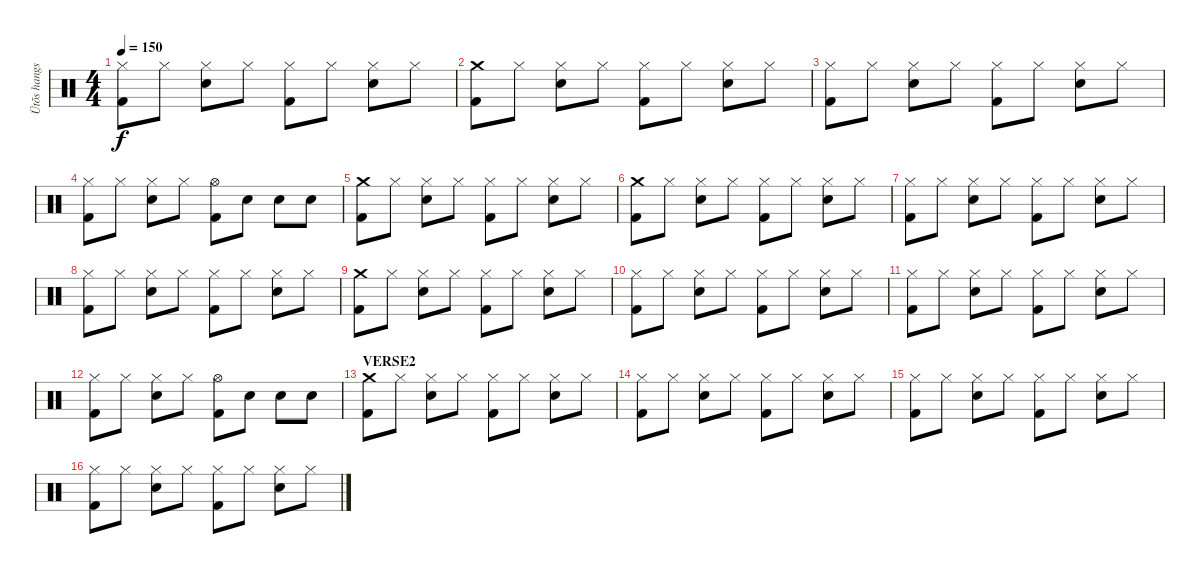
\track ("Ütõs hangszer" "Ütõs hangs") {instrument percussion}
\staff {score}
\articulation defaults
\ts (4 4)
\tempo 150
\clef neutral
\ks c
("Hi-Hat (closed)" "Kick (hit) 2").8{dy f} "Hi-Hat (closed)".8 ("Hi-Hat (closed)" "Electric Snare (hit)").8 "Hi-Hat (closed)".8 ("Hi-Hat (closed)" "Kick (hit) 2").8 "Hi-Hat (closed)".8 ("Hi-Hat (closed)" "Electric Snare (hit)").8 "Hi-Hat (closed)".8 |
("Crash medium (hit)" "Kick (hit) 2").8 "Hi-Hat (closed)".8 ("Hi-Hat (closed)" "Electric Snare (hit)").8 "Hi-Hat (closed)".8 ("Hi-Hat (closed)" "Kick (hit) 2").8 "Hi-Hat (closed)".8 ("Hi-Hat (closed)" "Electric Snare (hit)").8 "Hi-Hat (closed)".8 |
("Hi-Hat (closed)" "Kick (hit) 2").8 "Hi-Hat (closed)".8 ("Hi-Hat (closed)" "Electric Snare (hit)").8 "Hi-Hat (closed)".8 ("Hi-Hat (closed)" "Kick (hit) 2").8 "Hi-Hat (closed)".8 ("Hi-Hat (closed)" "Electric Snare (hit)").8 "Hi-Hat (closed)".8 |
("Hi-Hat (closed)" "Kick (hit) 2").8 "Hi-Hat (closed)".8 ("Hi-Hat (closed)" "Electric Snare (hit)").8 "Hi-Hat (closed)".8 ("Hi-Hat (open)" "Kick (hit) 2").8 "Electric Snare (hit)".8 "Electric Snare (hit)".8 "Electric Snare (hit)".8 |
("Crash medium (hit)" "Kick (hit) 2").8 "Hi-Hat (closed)".8 ("Hi-Hat (closed)" "Electric Snare (hit)").8 "Hi-Hat (closed)".8 ("Hi-Hat (closed)" "Kick (hit) 2").8 "Hi-Hat (closed)".8 ("Hi-Hat (closed)" "Electric Snare (hit)").8 "Hi-Hat (closed)".8 |
("Crash medium (hit)" "Kick (hit) 2").8 "Hi-Hat (closed)".8 ("Hi-Hat (closed)" "Electric Snare (hit)").8 "Hi-Hat (closed)".8 ("Hi-Hat (closed)" "Kick (hit) 2").8 "Hi-Hat (closed)".8 ("Hi-Hat (closed)" "Electric Snare (hit)").8 "Hi-Hat (closed)".8 |
("Hi-Hat (closed)" "Kick (hit) 2").8 "Hi-Hat (closed)".8 ("Hi-Hat (closed)" "Electric Snare (hit)").8 "Hi-Hat (closed)".8 ("Hi-Hat (closed)" "Kick (hit) 2").8 "Hi-Hat (closed)".8 ("Hi-Hat (closed)" "Electric Snare (hit)").8 "Hi-Hat (closed)".8 |
("Hi-Hat (closed)" "Kick (hit) 2").8 "Hi-Hat (closed)".8 ("Hi-Hat (closed)" "Electric Snare (hit)").8 "Hi-Hat (closed)".8 ("Hi-Hat (closed)" "Kick (hit) 2").8 "Hi-Hat (closed)".8 ("Hi-Hat (closed)" "Electric Snare (hit)").8 "Hi-Hat (closed)".8 |
("Crash medium (hit)" "Kick (hit) 2").8 "Hi-Hat (closed)".8 ("Hi-Hat (closed)" "Electric Snare (hit)").8 "Hi-Hat (closed)".8 ("Hi-Hat (closed)" "Kick (hit) 2").8 "Hi-Hat (closed)".8 ("Hi-Hat (closed)" "Electric Snare (hit)").8 "Hi-Hat (closed)".8 |
("Hi-Hat (closed)" "Kick (hit) 2").8 "Hi-Hat (closed)".8 ("Hi-Hat (closed)" "Electric Snare (hit)").8 "Hi-Hat (closed)".8 ("Hi-Hat (closed)" "Kick (hit) 2").8 "Hi-Hat (closed)".8 ("Hi-Hat (closed)" "Electric Snare (hit)").8 "Hi-Hat (closed)".8 |
("Hi-Hat (closed)" "Kick (hit) 2").8 "Hi-Hat (closed)".8 ("Hi-Hat (closed)" "Electric Snare (hit)").8 "Hi-Hat (closed)".8 ("Hi-Hat (closed)" "Kick (hit) 2").8 "Hi-Hat (closed)".8 ("Hi-Hat (closed)" "Electric Snare (hit)").8 "Hi-Hat (closed)".8 |
("Hi-Hat (closed)" "Kick (hit) 2").8 "Hi-Hat (closed)".8 ("Hi-Hat (closed)" "Electric Snare (hit)").8 "Hi-Hat (closed)".8 ("Hi-Hat (open)" "Kick (hit) 2").8 "Electric Snare (hit)".8 "Electric Snare (hit)".8 "Electric Snare (hit)".8 |
\section ("" "VERSE2")
("Crash medium (hit)" "Kick (hit) 2").8 "Hi-Hat (closed)".8 ("Hi-Hat (closed)" "Electric Snare (hit)").8 "Hi-Hat (closed)".8 ("Hi-Hat (closed)" "Kick (hit) 2").8 "Hi-Hat (closed)".8 ("Hi-Hat (closed)" "Electric Snare (hit)").8 "Hi-Hat (closed)".8 |
("Hi-Hat (closed)" "Kick (hit) 2").8 "Hi-Hat (closed)".8 ("Hi-Hat (closed)" "Electric Snare (hit)").8 "Hi-Hat (closed)".8 ("Hi-Hat (closed)" "Kick (hit) 2").8 "Hi-Hat (closed)".8 ("Hi-Hat (closed)" "Electric Snare (hit)").8 "Hi-Hat (closed)".8 |
("Hi-Hat (closed)" "Kick (hit) 2").8 "Hi-Hat (closed)".8 ("Hi-Hat (closed)" "Electric Snare (hit)").8 "Hi-Hat (closed)".8 ("Hi-Hat (closed)" "Kick (hit) 2").8 "Hi-Hat (closed)".8 ("Hi-Hat (closed)" "Electric Snare (hit)").8 "Hi-Hat (closed)".8 |
("Hi-Hat (closed)" "Kick (hit) 2").8 "Hi-Hat (closed)".8 ("Hi-Hat (closed)" "Electric Snare (hit)").8 "Hi-Hat (closed)".8 ("Hi-Hat (closed)" "Kick (hit) 2").8 "Hi-Hat (closed)".8 ("Hi-Hat (closed)" "Electric Snare (hit)").8 "Hi-Hat (closed)".8
